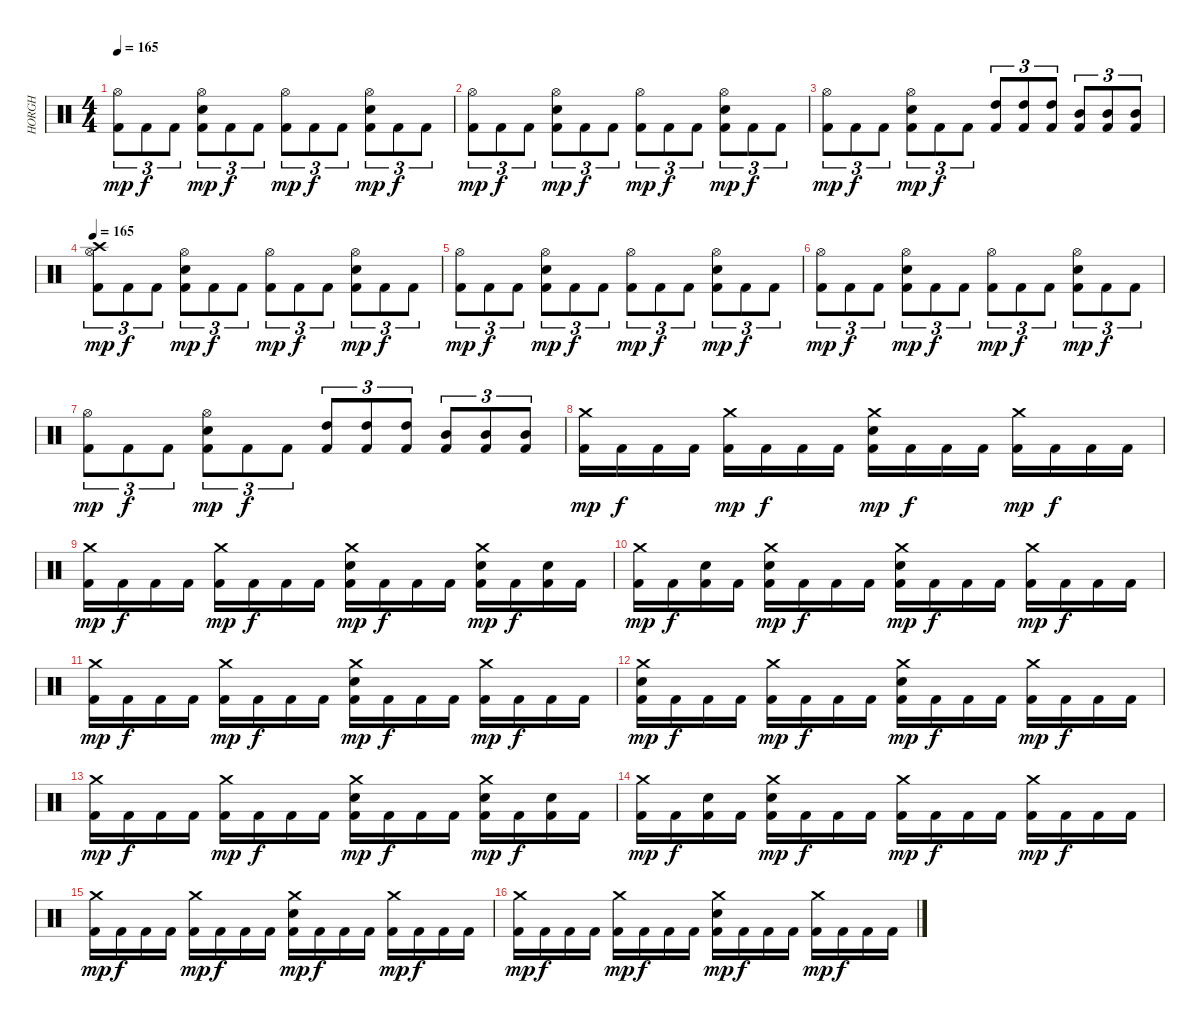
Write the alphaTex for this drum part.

\track ("HORGH" "HORGH") {instrument percussion}
\staff {score}
\articulation defaults
\ts (4 4)
\tempo 165
\clef neutral
\ks c
("Hi-Hat (open)" "Kick (hit) 2").8{tu (3 2) dy mp} "Kick (hit) 2".8{tu (3 2) dy f} "Kick (hit) 2".8{tu (3 2)} ("Hi-Hat (open)" "Electric Snare (hit)" "Kick (hit) 2").8{tu (3 2) dy mp} "Kick (hit) 2".8{tu (3 2) dy f} "Kick (hit) 2".8{tu (3 2)} ("Hi-Hat (open)" "Kick (hit) 2").8{tu (3 2) dy mp} "Kick (hit) 2".8{tu (3 2) dy f} "Kick (hit) 2".8{tu (3 2)} ("Hi-Hat (open)" "Electric Snare (hit)" "Kick (hit) 2").8{tu (3 2) dy mp} "Kick (hit) 2".8{tu (3 2) dy f} "Kick (hit) 2".8{tu (3 2)} |
("Hi-Hat (open)" "Kick (hit) 2").8{tu (3 2) dy mp} "Kick (hit) 2".8{tu (3 2) dy f} "Kick (hit) 2".8{tu (3 2)} ("Hi-Hat (open)" "Electric Snare (hit)" "Kick (hit) 2").8{tu (3 2) dy mp} "Kick (hit) 2".8{tu (3 2) dy f} "Kick (hit) 2".8{tu (3 2)} ("Hi-Hat (open)" "Kick (hit) 2").8{tu (3 2) dy mp} "Kick (hit) 2".8{tu (3 2) dy f} "Kick (hit) 2".8{tu (3 2)} ("Hi-Hat (open)" "Electric Snare (hit)" "Kick (hit) 2").8{tu (3 2) dy mp} "Kick (hit) 2".8{tu (3 2) dy f} "Kick (hit) 2".8{tu (3 2)} |
("Hi-Hat (open)" "Kick (hit) 2").8{tu (3 2) dy mp} "Kick (hit) 2".8{tu (3 2) dy f} "Kick (hit) 2".8{tu (3 2)} ("Hi-Hat (open)" "Electric Snare (hit)" "Kick (hit) 2").8{tu (3 2) dy mp} "Kick (hit) 2".8{tu (3 2) dy f} "Kick (hit) 2".8{tu (3 2)} ("High Tom (hit)" "Kick (hit) 2").8{tu (3 2)} ("High Tom (hit)" "Kick (hit) 2").8{tu (3 2)} ("High Tom (hit)" "Kick (hit) 2").8{tu (3 2)} ("Mid Tom (hit)" "Kick (hit) 2").8{tu (3 2)} ("Mid Tom (hit)" "Kick (hit) 2").8{tu (3 2)} ("Mid Tom (hit)" "Kick (hit) 2").8{tu (3 2)} |
\tempo 165
("Hi-Hat (open)" "Crash high (hit)" "Kick (hit) 2").8{tu (3 2) dy mp} "Kick (hit) 2".8{tu (3 2) dy f} "Kick (hit) 2".8{tu (3 2)} ("Hi-Hat (open)" "Electric Snare (hit)" "Kick (hit) 2").8{tu (3 2) dy mp} "Kick (hit) 2".8{tu (3 2) dy f} "Kick (hit) 2".8{tu (3 2)} ("Hi-Hat (open)" "Kick (hit) 2").8{tu (3 2) dy mp} "Kick (hit) 2".8{tu (3 2) dy f} "Kick (hit) 2".8{tu (3 2)} ("Hi-Hat (open)" "Electric Snare (hit)" "Kick (hit) 2").8{tu (3 2) dy mp} "Kick (hit) 2".8{tu (3 2) dy f} "Kick (hit) 2".8{tu (3 2)} |
("Hi-Hat (open)" "Kick (hit) 2").8{tu (3 2) dy mp} "Kick (hit) 2".8{tu (3 2) dy f} "Kick (hit) 2".8{tu (3 2)} ("Hi-Hat (open)" "Electric Snare (hit)" "Kick (hit) 2").8{tu (3 2) dy mp} "Kick (hit) 2".8{tu (3 2) dy f} "Kick (hit) 2".8{tu (3 2)} ("Hi-Hat (open)" "Kick (hit) 2").8{tu (3 2) dy mp} "Kick (hit) 2".8{tu (3 2) dy f} "Kick (hit) 2".8{tu (3 2)} ("Hi-Hat (open)" "Electric Snare (hit)" "Kick (hit) 2").8{tu (3 2) dy mp} "Kick (hit) 2".8{tu (3 2) dy f} "Kick (hit) 2".8{tu (3 2)} |
("Hi-Hat (open)" "Kick (hit) 2").8{tu (3 2) dy mp} "Kick (hit) 2".8{tu (3 2) dy f} "Kick (hit) 2".8{tu (3 2)} ("Hi-Hat (open)" "Electric Snare (hit)" "Kick (hit) 2").8{tu (3 2) dy mp} "Kick (hit) 2".8{tu (3 2) dy f} "Kick (hit) 2".8{tu (3 2)} ("Hi-Hat (open)" "Kick (hit) 2").8{tu (3 2) dy mp} "Kick (hit) 2".8{tu (3 2) dy f} "Kick (hit) 2".8{tu (3 2)} ("Hi-Hat (open)" "Electric Snare (hit)" "Kick (hit) 2").8{tu (3 2) dy mp} "Kick (hit) 2".8{tu (3 2) dy f} "Kick (hit) 2".8{tu (3 2)} |
("Hi-Hat (open)" "Kick (hit) 2").8{tu (3 2) dy mp} "Kick (hit) 2".8{tu (3 2) dy f} "Kick (hit) 2".8{tu (3 2)} ("Hi-Hat (open)" "Electric Snare (hit)" "Kick (hit) 2").8{tu (3 2) dy mp} "Kick (hit) 2".8{tu (3 2) dy f} "Kick (hit) 2".8{tu (3 2)} ("High Tom (hit)" "Kick (hit) 2").8{tu (3 2)} ("High Tom (hit)" "Kick (hit) 2").8{tu (3 2)} ("High Tom (hit)" "Kick (hit) 2").8{tu (3 2)} ("Mid Tom (hit)" "Kick (hit) 2").8{tu (3 2)} ("Mid Tom (hit)" "Kick (hit) 2").8{tu (3 2)} ("Mid Tom (hit)" "Kick (hit) 2").8{tu (3 2)} |
("Crash medium (hit)" "Kick (hit) 2").16{dy mp} "Kick (hit) 2".16{dy f} "Kick (hit) 2".16 "Kick (hit) 2".16 ("Crash medium (hit)" "Kick (hit) 2").16{dy mp} "Kick (hit) 2".16{dy f} "Kick (hit) 2".16 "Kick (hit) 2".16 ("Crash medium (hit)" "Electric Snare (hit)" "Kick (hit) 2").16{dy mp} "Kick (hit) 2".16{dy f} "Kick (hit) 2".16 "Kick (hit) 2".16 ("Crash medium (hit)" "Kick (hit) 2").16{dy mp} "Kick (hit) 2".16{dy f} "Kick (hit) 2".16 "Kick (hit) 2".16 |
("Crash medium (hit)" "Kick (hit) 2").16{dy mp} "Kick (hit) 2".16{dy f} "Kick (hit) 2".16 "Kick (hit) 2".16 ("Crash medium (hit)" "Kick (hit) 2").16{dy mp} "Kick (hit) 2".16{dy f} "Kick (hit) 2".16 "Kick (hit) 2".16 ("Crash medium (hit)" "Electric Snare (hit)" "Kick (hit) 2").16{dy mp} "Kick (hit) 2".16{dy f} "Kick (hit) 2".16 "Kick (hit) 2".16 ("Crash medium (hit)" "Electric Snare (hit)" "Kick (hit) 2").16{dy mp} "Kick (hit) 2".16{dy f} ("Electric Snare (hit)" "Kick (hit) 2").16 "Kick (hit) 2".16 |
("Crash medium (hit)" "Kick (hit) 2").16{dy mp} "Kick (hit) 2".16{dy f} ("Electric Snare (hit)" "Kick (hit) 2").16 "Kick (hit) 2".16 ("Crash medium (hit)" "Electric Snare (hit)" "Kick (hit) 2").16{dy mp} "Kick (hit) 2".16{dy f} "Kick (hit) 2".16 "Kick (hit) 2".16 ("Crash medium (hit)" "Electric Snare (hit)" "Kick (hit) 2").16{dy mp} "Kick (hit) 2".16{dy f} "Kick (hit) 2".16 "Kick (hit) 2".16 ("Crash medium (hit)" "Kick (hit) 2").16{dy mp} "Kick (hit) 2".16{dy f} "Kick (hit) 2".16 "Kick (hit) 2".16 |
("Crash medium (hit)" "Kick (hit) 2").16{dy mp} "Kick (hit) 2".16{dy f} "Kick (hit) 2".16 "Kick (hit) 2".16 ("Crash medium (hit)" "Kick (hit) 2").16{dy mp} "Kick (hit) 2".16{dy f} "Kick (hit) 2".16 "Kick (hit) 2".16 ("Crash medium (hit)" "Electric Snare (hit)" "Kick (hit) 2").16{dy mp} "Kick (hit) 2".16{dy f} "Kick (hit) 2".16 "Kick (hit) 2".16 ("Crash medium (hit)" "Kick (hit) 2").16{dy mp} "Kick (hit) 2".16{dy f} "Kick (hit) 2".16 "Kick (hit) 2".16 |
("Crash medium (hit)" "Electric Snare (hit)" "Kick (hit) 2").16{dy mp} "Kick (hit) 2".16{dy f} "Kick (hit) 2".16 "Kick (hit) 2".16 ("Crash medium (hit)" "Kick (hit) 2").16{dy mp} "Kick (hit) 2".16{dy f} "Kick (hit) 2".16 "Kick (hit) 2".16 ("Crash medium (hit)" "Electric Snare (hit)" "Kick (hit) 2").16{dy mp} "Kick (hit) 2".16{dy f} "Kick (hit) 2".16 "Kick (hit) 2".16 ("Crash medium (hit)" "Kick (hit) 2").16{dy mp} "Kick (hit) 2".16{dy f} "Kick (hit) 2".16 "Kick (hit) 2".16 |
("Crash medium (hit)" "Kick (hit) 2").16{dy mp} "Kick (hit) 2".16{dy f} "Kick (hit) 2".16 "Kick (hit) 2".16 ("Crash medium (hit)" "Kick (hit) 2").16{dy mp} "Kick (hit) 2".16{dy f} "Kick (hit) 2".16 "Kick (hit) 2".16 ("Crash medium (hit)" "Electric Snare (hit)" "Kick (hit) 2").16{dy mp} "Kick (hit) 2".16{dy f} "Kick (hit) 2".16 "Kick (hit) 2".16 ("Crash medium (hit)" "Electric Snare (hit)" "Kick (hit) 2").16{dy mp} "Kick (hit) 2".16{dy f} ("Electric Snare (hit)" "Kick (hit) 2").16 "Kick (hit) 2".16 |
("Crash medium (hit)" "Kick (hit) 2").16{dy mp} "Kick (hit) 2".16{dy f} ("Electric Snare (hit)" "Kick (hit) 2").16 "Kick (hit) 2".16 ("Crash medium (hit)" "Electric Snare (hit)" "Kick (hit) 2").16{dy mp} "Kick (hit) 2".16{dy f} "Kick (hit) 2".16 "Kick (hit) 2".16 ("Crash medium (hit)" "Kick (hit) 2").16{dy mp} "Kick (hit) 2".16{dy f} "Kick (hit) 2".16 "Kick (hit) 2".16 ("Crash medium (hit)" "Kick (hit) 2").16{dy mp} "Kick (hit) 2".16{dy f} "Kick (hit) 2".16 "Kick (hit) 2".16 |
("Crash medium (hit)" "Kick (hit) 2").16{dy mp} "Kick (hit) 2".16{dy f} "Kick (hit) 2".16 "Kick (hit) 2".16 ("Crash medium (hit)" "Kick (hit) 2").16{dy mp} "Kick (hit) 2".16{dy f} "Kick (hit) 2".16 "Kick (hit) 2".16 ("Crash medium (hit)" "Electric Snare (hit)" "Kick (hit) 2").16{dy mp} "Kick (hit) 2".16{dy f} "Kick (hit) 2".16 "Kick (hit) 2".16 ("Crash medium (hit)" "Kick (hit) 2").16{dy mp} "Kick (hit) 2".16{dy f} "Kick (hit) 2".16 "Kick (hit) 2".16 |
("Crash medium (hit)" "Kick (hit) 2").16{dy mp} "Kick (hit) 2".16{dy f} "Kick (hit) 2".16 "Kick (hit) 2".16 ("Crash medium (hit)" "Kick (hit) 2").16{dy mp} "Kick (hit) 2".16{dy f} "Kick (hit) 2".16 "Kick (hit) 2".16 ("Crash medium (hit)" "Electric Snare (hit)" "Kick (hit) 2").16{dy mp} "Kick (hit) 2".16{dy f} "Kick (hit) 2".16 "Kick (hit) 2".16 ("Crash medium (hit)" "Kick (hit) 2").16{dy mp} "Kick (hit) 2".16{dy f} "Kick (hit) 2".16 "Kick (hit) 2".16
